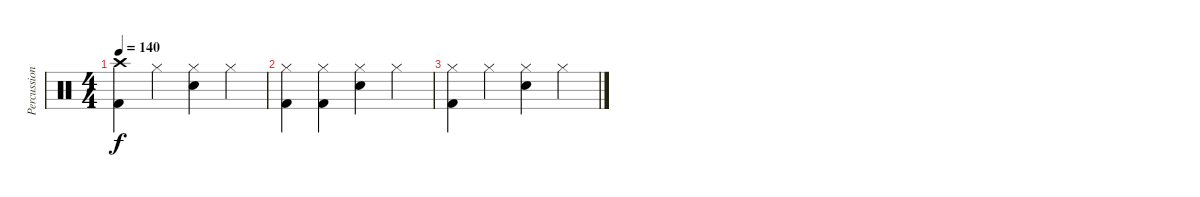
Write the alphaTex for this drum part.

\track ("Percussion" "Percussion") {instrument percussion}
\staff {score}
\articulation defaults
\ts (4 4)
\tempo 140
\clef neutral
\ks c
("Crash high (hit)" "Kick (hit) 2").4{dy f} "Hi-Hat (closed)".4 ("Hi-Hat (closed)" "Electric Snare (hit)").4 "Hi-Hat (closed)".4 |
("Hi-Hat (closed)" "Kick (hit) 2").4 ("Hi-Hat (closed)" "Kick (hit) 2").4 ("Hi-Hat (closed)" "Electric Snare (hit)").4 "Hi-Hat (closed)".4 |
("Hi-Hat (closed)" "Kick (hit) 2").4 "Hi-Hat (closed)".4 ("Hi-Hat (closed)" "Electric Snare (hit)").4 "Hi-Hat (closed)".4
